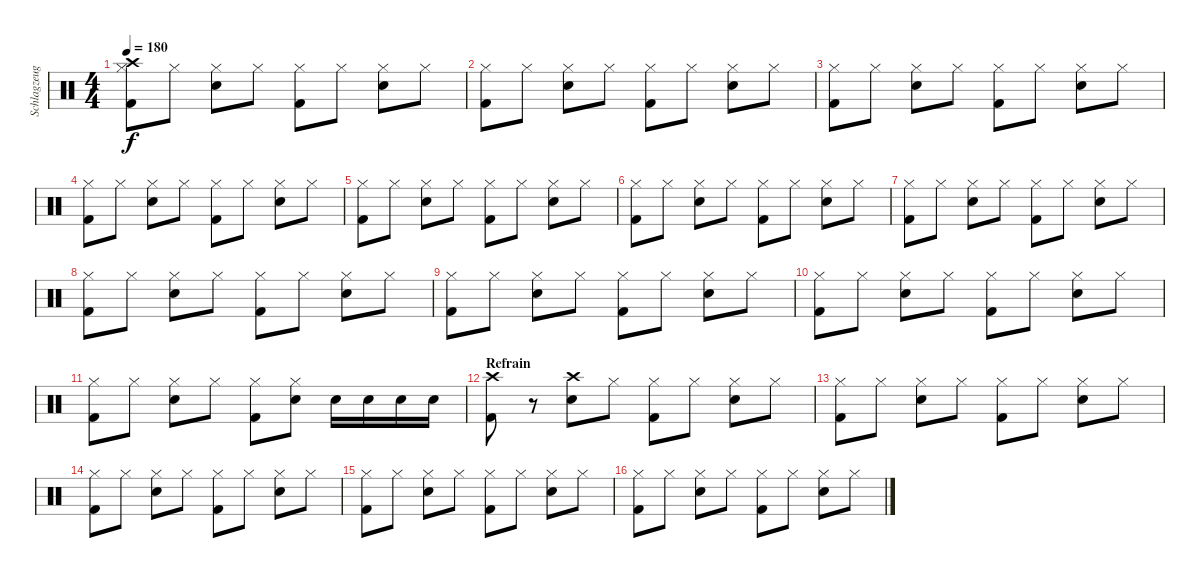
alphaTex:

\track ("Schlagzeug" "Schlagzeug") {instrument percussion}
\staff {score}
\articulation defaults
\ts (4 4)
\tempo 180
\clef neutral
\ks c
("Crash high (hit)" "Hi-Hat (closed)" "Kick (hit) 2").8{dy f} "Hi-Hat (closed)".8 ("Hi-Hat (closed)" "Snare (hit) 2").8 "Hi-Hat (closed)".8 ("Hi-Hat (closed)" "Kick (hit) 2").8 "Hi-Hat (closed)".8 ("Hi-Hat (closed)" "Snare (hit) 2").8 "Hi-Hat (closed)".8 |
("Hi-Hat (closed)" "Kick (hit) 2").8 "Hi-Hat (closed)".8 ("Hi-Hat (closed)" "Snare (hit) 2").8 "Hi-Hat (closed)".8 ("Hi-Hat (closed)" "Kick (hit) 2").8 "Hi-Hat (closed)".8 ("Hi-Hat (closed)" "Snare (hit) 2").8 "Hi-Hat (closed)".8 |
("Hi-Hat (closed)" "Kick (hit) 2").8 "Hi-Hat (closed)".8 ("Hi-Hat (closed)" "Snare (hit) 2").8 "Hi-Hat (closed)".8 ("Hi-Hat (closed)" "Kick (hit) 2").8 "Hi-Hat (closed)".8 ("Hi-Hat (closed)" "Snare (hit) 2").8 "Hi-Hat (closed)".8 |
("Hi-Hat (closed)" "Kick (hit) 2").8 "Hi-Hat (closed)".8 ("Hi-Hat (closed)" "Snare (hit) 2").8 "Hi-Hat (closed)".8 ("Hi-Hat (closed)" "Kick (hit) 2").8 "Hi-Hat (closed)".8 ("Hi-Hat (closed)" "Snare (hit) 2").8 "Hi-Hat (closed)".8 |
("Hi-Hat (closed)" "Kick (hit) 2").8 "Hi-Hat (closed)".8 ("Hi-Hat (closed)" "Snare (hit) 2").8 "Hi-Hat (closed)".8 ("Hi-Hat (closed)" "Kick (hit) 2").8 "Hi-Hat (closed)".8 ("Hi-Hat (closed)" "Snare (hit) 2").8 "Hi-Hat (closed)".8 |
("Hi-Hat (closed)" "Kick (hit) 2").8 "Hi-Hat (closed)".8 ("Hi-Hat (closed)" "Snare (hit) 2").8 "Hi-Hat (closed)".8 ("Hi-Hat (closed)" "Kick (hit) 2").8 "Hi-Hat (closed)".8 ("Hi-Hat (closed)" "Snare (hit) 2").8 "Hi-Hat (closed)".8 |
("Hi-Hat (closed)" "Kick (hit) 2").8 "Hi-Hat (closed)".8 ("Hi-Hat (closed)" "Snare (hit) 2").8 "Hi-Hat (closed)".8 ("Hi-Hat (closed)" "Kick (hit) 2").8 "Hi-Hat (closed)".8 ("Hi-Hat (closed)" "Snare (hit) 2").8 "Hi-Hat (closed)".8 |
("Hi-Hat (closed)" "Kick (hit) 2").8 "Hi-Hat (closed)".8 ("Hi-Hat (closed)" "Snare (hit) 2").8 "Hi-Hat (closed)".8 ("Hi-Hat (closed)" "Kick (hit) 2").8 "Hi-Hat (closed)".8 ("Hi-Hat (closed)" "Snare (hit) 2").8 "Hi-Hat (closed)".8 |
("Hi-Hat (closed)" "Kick (hit) 2").8 "Hi-Hat (closed)".8 ("Hi-Hat (closed)" "Snare (hit) 2").8 "Hi-Hat (closed)".8 ("Hi-Hat (closed)" "Kick (hit) 2").8 "Hi-Hat (closed)".8 ("Hi-Hat (closed)" "Snare (hit) 2").8 "Hi-Hat (closed)".8 |
("Hi-Hat (closed)" "Kick (hit) 2").8 "Hi-Hat (closed)".8 ("Hi-Hat (closed)" "Snare (hit) 2").8 "Hi-Hat (closed)".8 ("Hi-Hat (closed)" "Kick (hit) 2").8 "Hi-Hat (closed)".8 ("Hi-Hat (closed)" "Snare (hit) 2").8 "Hi-Hat (closed)".8 |
("Hi-Hat (closed)" "Kick (hit) 2").8 "Hi-Hat (closed)".8 ("Hi-Hat (closed)" "Snare (hit) 2").8 "Hi-Hat (closed)".8 ("Hi-Hat (closed)" "Kick (hit) 2").8 ("Hi-Hat (closed)" "Snare (hit) 2").8 "Snare (hit) 2".16 "Snare (hit) 2".16 "Snare (hit) 2".16 "Snare (hit) 2".16 |
\section ("" "Refrain")
("Kick (hit) 2" "Crash high (hit)").8 r.8 ("Snare (hit) 2" "Crash high (hit)").8 "Hi-Hat (closed)".8 ("Kick (hit) 2" "Hi-Hat (closed)").8 "Hi-Hat (closed)".8 ("Snare (hit) 2" "Hi-Hat (closed)").8 "Hi-Hat (closed)".8 |
("Kick (hit) 2" "Hi-Hat (closed)").8 "Hi-Hat (closed)".8 ("Hi-Hat (closed)" "Snare (hit) 2").8 "Hi-Hat (closed)".8 ("Hi-Hat (closed)" "Kick (hit) 2").8 "Hi-Hat (closed)".8 ("Hi-Hat (closed)" "Snare (hit) 2").8 "Hi-Hat (closed)".8 |
("Hi-Hat (closed)" "Kick (hit) 2").8 "Hi-Hat (closed)".8 ("Hi-Hat (closed)" "Snare (hit) 2").8 "Hi-Hat (closed)".8 ("Hi-Hat (closed)" "Kick (hit) 2").8 "Hi-Hat (closed)".8 ("Hi-Hat (closed)" "Snare (hit) 2").8 "Hi-Hat (closed)".8 |
("Hi-Hat (closed)" "Kick (hit) 2").8 "Hi-Hat (closed)".8 ("Hi-Hat (closed)" "Snare (hit) 2").8 "Hi-Hat (closed)".8 ("Hi-Hat (closed)" "Kick (hit) 2").8 "Hi-Hat (closed)".8 ("Hi-Hat (closed)" "Snare (hit) 2").8 "Hi-Hat (closed)".8 |
("Hi-Hat (closed)" "Kick (hit) 2").8 "Hi-Hat (closed)".8 ("Hi-Hat (closed)" "Snare (hit) 2").8 "Hi-Hat (closed)".8 ("Hi-Hat (closed)" "Kick (hit) 2").8 "Hi-Hat (closed)".8 ("Hi-Hat (closed)" "Snare (hit) 2").8 "Hi-Hat (closed)".8
